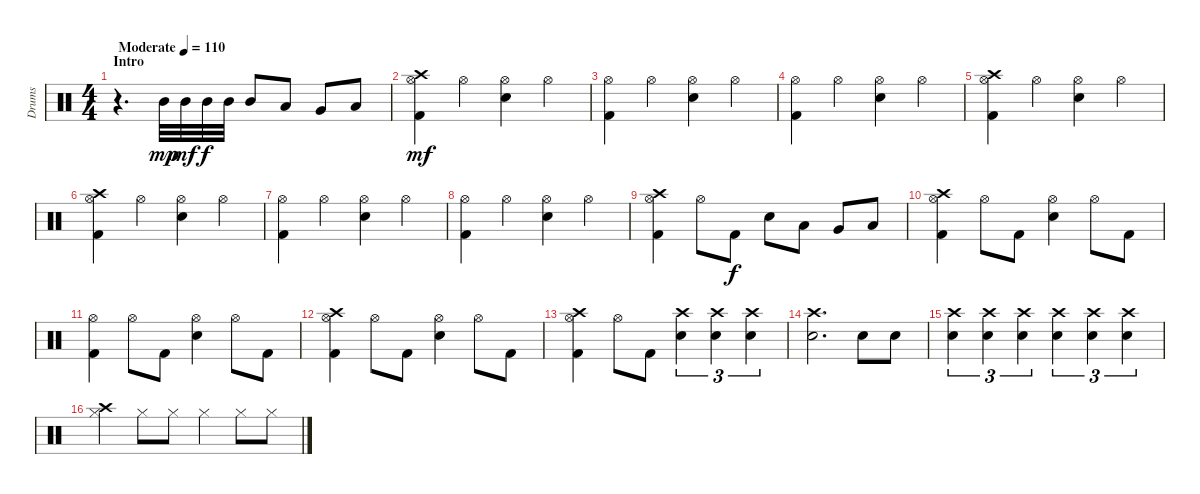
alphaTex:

\track ("Drums" "Drums") {instrument percussion}
\staff {score}
\articulation defaults
\ts (4 4)
\section ("" "Intro")
\tempo (110 "Moderate")
\clef neutral
\ks c
r.4{d dy mp} "Mid Tom (hit)".32 "Mid Tom (hit)".32{dy mf} "Mid Tom (hit)".32{dy f} "Mid Tom (hit)".32 "Mid Tom (hit)".8 "Low Tom (hit)".8 "Very Low Tom (hit)".8 "Low Floor Tom (hit)".8 |
("Kick (hit) 2" "Hi-Hat (open)" "Crash high (hit)").4{dy mf} "Hi-Hat (open)".4 ("Snare (hit) 2" "Hi-Hat (open)").4 "Hi-Hat (open)".4 |
("Kick (hit) 2" "Hi-Hat (open)").4 "Hi-Hat (open)".4 ("Snare (hit) 2" "Hi-Hat (open)").4 "Hi-Hat (open)".4 |
("Kick (hit) 2" "Hi-Hat (open)").4 "Hi-Hat (open)".4 ("Snare (hit) 2" "Hi-Hat (open)").4 "Hi-Hat (open)".4 |
("Kick (hit) 2" "Hi-Hat (open)" "Crash high (hit)").4 "Hi-Hat (open)".4 ("Snare (hit) 2" "Hi-Hat (open)").4 "Hi-Hat (open)".4 |
("Kick (hit) 2" "Hi-Hat (open)" "Crash high (hit)").4 "Hi-Hat (open)".4 ("Snare (hit) 2" "Hi-Hat (open)").4 "Hi-Hat (open)".4 |
("Kick (hit) 2" "Hi-Hat (open)").4 "Hi-Hat (open)".4 ("Snare (hit) 2" "Hi-Hat (open)").4 "Hi-Hat (open)".4 |
("Kick (hit) 2" "Hi-Hat (open)").4 "Hi-Hat (open)".4 ("Snare (hit) 2" "Hi-Hat (open)").4 "Hi-Hat (open)".4 |
("Kick (hit) 2" "Hi-Hat (open)" "Crash high (hit)").4 "Hi-Hat (open)".8 "Kick (hit) 2".8{dy f} "Snare (hit) 2".8 "Low Tom (hit)".8 "Very Low Tom (hit)".8 "Low Floor Tom (hit)".8 |
("Kick (hit) 2" "Hi-Hat (open)" "Crash high (hit)").4 "Hi-Hat (open)".8 "Kick (hit) 2".8 ("Snare (hit) 2" "Hi-Hat (open)").4 "Hi-Hat (open)".8 "Kick (hit) 2".8 |
("Kick (hit) 2" "Hi-Hat (open)").4 "Hi-Hat (open)".8 "Kick (hit) 2".8 ("Snare (hit) 2" "Hi-Hat (open)").4 "Hi-Hat (open)".8 "Kick (hit) 2".8 |
("Kick (hit) 2" "Hi-Hat (open)" "Crash high (hit)").4 "Hi-Hat (open)".8 "Kick (hit) 2".8 ("Snare (hit) 2" "Hi-Hat (open)").4 "Hi-Hat (open)".8 "Kick (hit) 2".8 |
("Kick (hit) 2" "Hi-Hat (open)" "Crash high (hit)").4 "Hi-Hat (open)".8 "Kick (hit) 2".8 ("Snare (hit) 2" "Crash high (hit)").4{tu (3 2)} ("Snare (hit) 2" "Crash high (hit)").4{tu (3 2)} ("Snare (hit) 2" "Crash high (hit)").4{tu (3 2)} |
("Snare (hit) 2" "Crash high (hit)").2{d} "Snare (hit) 2".8 "Snare (hit) 2".8 |
("Snare (hit) 2" "Crash high (hit)").4{tu (3 2)} ("Snare (hit) 2" "Crash high (hit)").4{tu (3 2)} ("Snare (hit) 2" "Crash high (hit)").4{tu (3 2)} ("Snare (hit) 2" "Crash high (hit)").4{tu (3 2)} ("Snare (hit) 2" "Crash high (hit)").4{tu (3 2)} ("Snare (hit) 2" "Crash high (hit)").4{tu (3 2)} |
("Hi-Hat (closed)" "Crash high (hit)").4 "Hi-Hat (closed)".8 "Hi-Hat (closed)".8 "Hi-Hat (closed)".4 "Hi-Hat (closed)".8 "Hi-Hat (closed)".8
